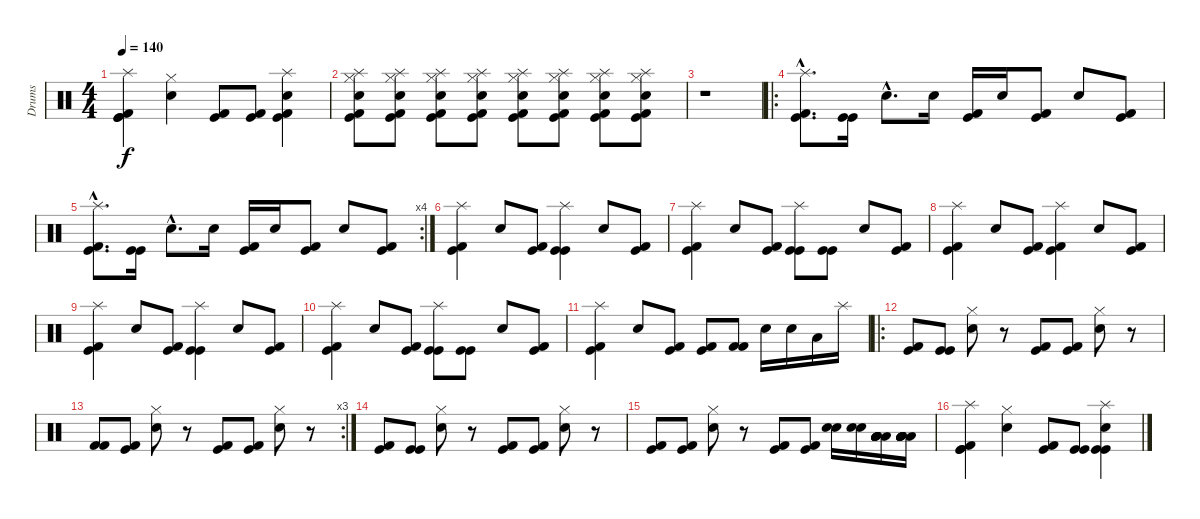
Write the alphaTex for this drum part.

\track ("Drums" "Drums") {instrument percussion}
\staff {score}
\articulation defaults
\ts (4 4)
\tempo 140
\clef neutral
\ks c
("Splash (hit)" "Kick (hit)" "Kick (hit)" "Kick (hit) 2").4{dy f} ("Hi-Hat (closed)" "Snare (hit) 2").4 ("Kick (hit)" "Kick (hit) 2").8 ("Kick (hit)" "Kick (hit) 2").8 ("Splash (hit)" "Snare (hit) 2" "Kick (hit)" "Kick (hit) 2").4 |
("Splash (hit)" "Snare (hit) 2" "Hi-Hat (closed)" "Kick (hit)" "Kick (hit) 2").8 ("Splash (hit)" "Hi-Hat (closed)" "Snare (hit) 2" "Kick (hit)" "Kick (hit) 2").8 ("Splash (hit)" "Snare (hit) 2" "Hi-Hat (closed)" "Kick (hit)" "Kick (hit) 2").8 ("Splash (hit)" "Snare (hit) 2" "Hi-Hat (closed)" "Kick (hit)" "Kick (hit) 2").8 ("Splash (hit)" "Snare (hit) 2" "Hi-Hat (closed)" "Kick (hit)" "Kick (hit) 2").8 ("Splash (hit)" "Snare (hit) 2" "Hi-Hat (closed)" "Kick (hit)" "Kick (hit) 2").8 ("Splash (hit)" "Snare (hit) 2" "Hi-Hat (closed)" "Kick (hit)" "Kick (hit) 2").8 ("Splash (hit)" "Snare (hit) 2" "Hi-Hat (closed)" "Kick (hit)" "Kick (hit) 2").8 |
r.1 |
\ro
("Splash (hit)"{hac} "Kick (hit)"{hac} "Kick (hit) 2"{hac}).8{d} ("Kick (hit)" "Kick (hit)").16 "Snare (hit) 2"{hac}.8{d} "Snare (hit) 2".16 ("Kick (hit)" "Kick (hit) 2").16 "Snare (hit) 2".16 ("Kick (hit)" "Kick (hit) 2").8 "Snare (hit) 2".8 ("Kick (hit) 2" "Kick (hit)").8 |
\rc 4
("Splash (hit)"{hac} "Kick (hit)"{hac} "Kick (hit) 2"{hac}).8{d} ("Kick (hit)" "Kick (hit)").16 "Snare (hit) 2"{hac}.8{d} "Snare (hit) 2".16 ("Kick (hit)" "Kick (hit) 2").16 "Snare (hit) 2".16 ("Kick (hit)" "Kick (hit) 2").8 "Snare (hit) 2".8 ("Kick (hit)" "Kick (hit) 2").8 |
("Splash (hit)" "Kick (hit)" "Kick (hit) 2").4 "Snare (hit) 2".8 ("Kick (hit)" "Kick (hit) 2").8 ("Splash (hit)" "Kick (hit)" "Kick (hit)").4 "Snare (hit) 2".8 ("Kick (hit)" "Kick (hit) 2").8 |
("Splash (hit)" "Kick (hit)" "Kick (hit) 2").4 "Snare (hit) 2".8 ("Kick (hit)" "Kick (hit) 2").8 ("Splash (hit)" "Kick (hit)" "Kick (hit)").8 ("Kick (hit)" "Kick (hit)").8 "Snare (hit) 2".8 ("Kick (hit)" "Kick (hit) 2").8 |
("Splash (hit)" "Kick (hit)" "Kick (hit) 2").4 "Snare (hit) 2".8 ("Kick (hit)" "Kick (hit) 2").8 ("Splash (hit)" "Kick (hit)" "Kick (hit) 2").4 "Snare (hit) 2".8 ("Kick (hit) 2" "Kick (hit)").8 |
("Splash (hit)" "Kick (hit)" "Kick (hit) 2").4 "Snare (hit) 2".8 ("Kick (hit)" "Kick (hit) 2").8 ("Splash (hit)" "Kick (hit)" "Kick (hit)").4 "Snare (hit) 2".8 ("Kick (hit)" "Kick (hit) 2").8 |
("Splash (hit)" "Kick (hit)" "Kick (hit) 2").4 "Snare (hit) 2".8 ("Kick (hit)" "Kick (hit) 2").8 ("Splash (hit)" "Kick (hit)" "Kick (hit)").8 ("Kick (hit)" "Kick (hit)").8 "Snare (hit) 2".8 ("Kick (hit)" "Kick (hit) 2").8 |
("Splash (hit)" "Kick (hit)" "Kick (hit) 2").4 "Snare (hit) 2".8 ("Kick (hit)" "Kick (hit) 2").8 ("Kick (hit)" "Kick (hit) 2").8 ("Kick (hit) 2" "Kick (hit) 2").8 "Snare (hit) 2".16 "Snare (hit) 2".16 "Low Tom (hit)".16 "Splash (hit)".16 |
\ro
("Kick (hit)" "Kick (hit) 2").8 ("Kick (hit)" "Kick (hit)").8 ("Snare (hit) 2" "Hi-Hat (closed)").8 r.8 ("Kick (hit)" "Kick (hit) 2").8 ("Kick (hit)" "Kick (hit) 2").8 ("Snare (hit) 2" "Hi-Hat (closed)").8 r.8 |
\rc 3
("Kick (hit) 2" "Kick (hit) 2").8 ("Kick (hit)" "Kick (hit) 2").8 ("Snare (hit) 2" "Hi-Hat (closed)").8 r.8 ("Kick (hit)" "Kick (hit) 2").8 ("Kick (hit)" "Kick (hit) 2").8 ("Snare (hit) 2" "Hi-Hat (closed)").8 r.8 |
("Kick (hit)" "Kick (hit) 2").8 ("Kick (hit)" "Kick (hit)").8 ("Snare (hit) 2" "Hi-Hat (closed)").8 r.8 ("Kick (hit)" "Kick (hit) 2").8 ("Kick (hit)" "Kick (hit) 2").8 ("Snare (hit) 2" "Hi-Hat (closed)").8 r.8 |
("Kick (hit)" "Kick (hit) 2").8 ("Kick (hit)" "Kick (hit) 2").8 ("Snare (hit) 2" "Hi-Hat (closed)").8 r.8 ("Kick (hit)" "Kick (hit) 2").8 ("Kick (hit)" "Kick (hit) 2").8 ("Snare (hit) 2" "Snare (hit) 2").16 ("Snare (hit) 2" "Snare (hit) 2").16 ("Low Tom (hit)" "Low Tom (hit)" "Low Tom (hit)" "Low Tom (hit)" "Low Tom (hit)" "Low Tom (hit)").16 ("Low Tom (hit)" "Low Tom (hit)" "Low Tom (hit)" "Low Tom (hit)" "Low Tom (hit)" "Low Tom (hit)").16 |
("Splash (hit)" "Kick (hit)" "Kick (hit)" "Kick (hit) 2").4 ("Hi-Hat (closed)" "Snare (hit) 2").4 ("Kick (hit)" "Kick (hit) 2").8 ("Kick (hit)" "Kick (hit)").8 ("Splash (hit)" "Snare (hit) 2" "Kick (hit)" "Kick (hit)").4
